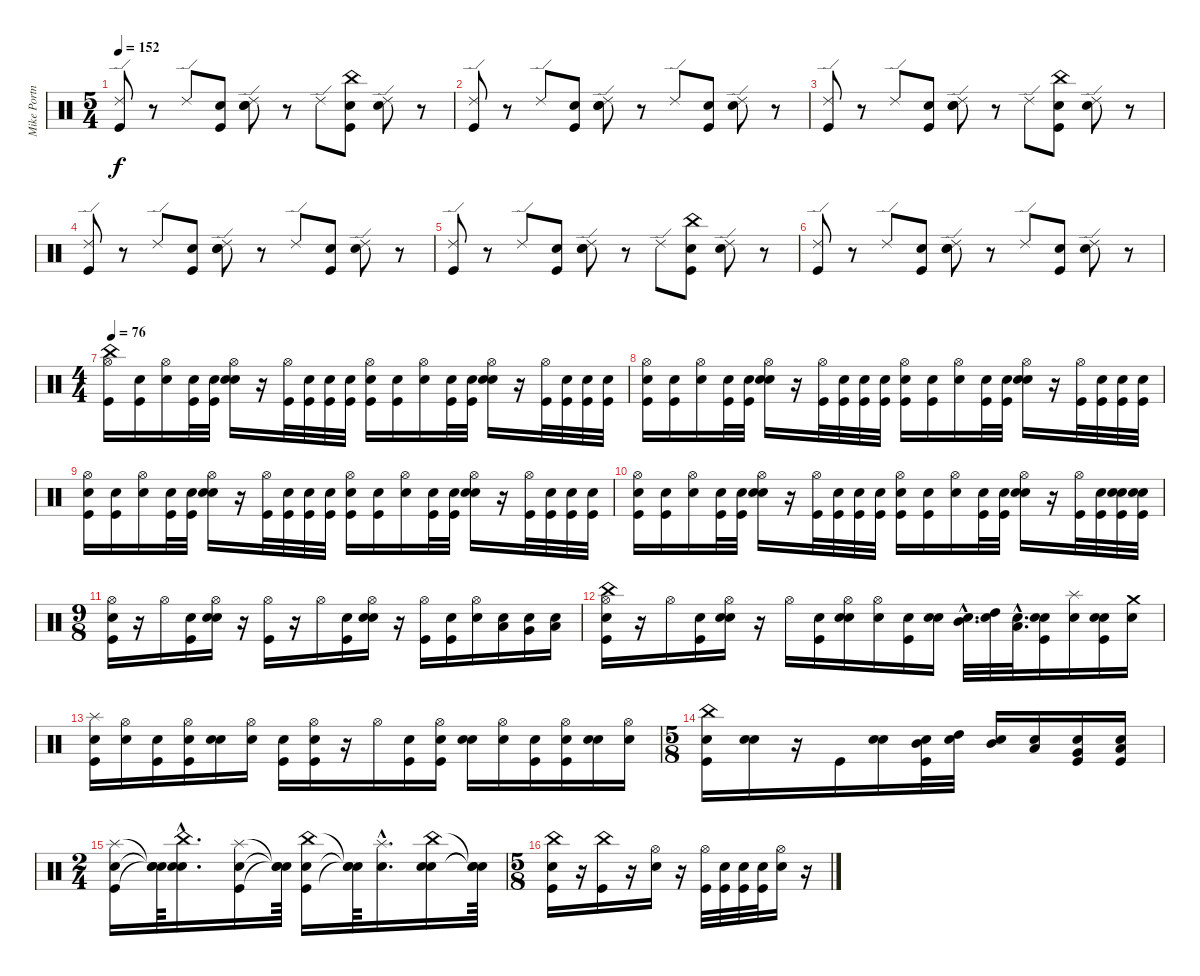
\track ("Mike Portnoy - Drum" "Mike Portn") {instrument percussion}
\staff {score}
\articulation defaults
\ts (5 4)
\tempo 152
\clef neutral
\ks c
("Kick (hit)" "Ride (edge) 2").8{dy f} r.8 "Ride (edge) 2".8 ("Snare (hit)" "Kick (hit)").8 ("Snare (hit)" "Snare (hit) 2" "Ride (edge) 2").8 r.8 "Ride (edge) 2".8 ("Snare (hit)" "Kick (hit)" "China (hit)").8 ("Snare (hit)" "Ride (edge) 2").8 r.8 |
("Kick (hit)" "Ride (edge) 2").8 r.8 "Ride (edge) 2".8 ("Snare (hit)" "Kick (hit)").8 ("Snare (hit)" "Snare (hit) 2" "Ride (edge) 2").8 r.8 "Ride (edge) 2".8 ("Snare (hit)" "Kick (hit)").8 ("Snare (hit)" "Ride (edge) 2").8 r.8 |
("Kick (hit)" "Ride (edge) 2").8 r.8 "Ride (edge) 2".8 ("Snare (hit)" "Kick (hit)").8 ("Snare (hit)" "Snare (hit) 2" "Ride (edge) 2").8 r.8 "Ride (edge) 2".8 ("Snare (hit)" "Kick (hit)" "China (hit)").8 ("Snare (hit)" "Ride (edge) 2").8 r.8 |
("Kick (hit)" "Ride (edge) 2").8 r.8 "Ride (edge) 2".8 ("Snare (hit)" "Kick (hit)").8 ("Snare (hit)" "Snare (hit) 2" "Ride (edge) 2").8 r.8 "Ride (edge) 2".8 ("Snare (hit)" "Kick (hit)").8 ("Snare (hit)" "Ride (edge) 2").8 r.8 |
("Kick (hit)" "Ride (edge) 2").8 r.8 "Ride (edge) 2".8 ("Snare (hit)" "Kick (hit)").8 ("Snare (hit)" "Snare (hit) 2" "Ride (edge) 2").8 r.8 "Ride (edge) 2".8 ("Snare (hit)" "Kick (hit)" "China (hit)").8 ("Snare (hit)" "Ride (edge) 2").8 r.8 |
("Kick (hit)" "Ride (edge) 2").8 r.8 "Ride (edge) 2".8 ("Snare (hit)" "Kick (hit)").8 ("Snare (hit)" "Snare (hit) 2" "Ride (edge) 2").8 r.8 "Ride (edge) 2".8 ("Snare (hit)" "Kick (hit)").8 ("Snare (hit)" "Ride (edge) 2").8 r.8 |
\ts (4 4)
\tempo 76
("Kick (hit)" "Hi-Hat (open)" "China (hit)").16 ("Snare (hit)" "Kick (hit)").16 ("Snare (hit)" "Hi-Hat (open)").16 ("Snare (hit)" "Kick (hit)").32 ("Snare (hit)" "Kick (hit)").32 ("Snare (hit)" "Snare (hit) 2" "Hi-Hat (open)").16 r.16 ("Kick (hit)" "Hi-Hat (open)").32 ("Snare (hit)" "Kick (hit)").32 ("Snare (hit)" "Kick (hit)").32 ("Snare (hit)" "Kick (hit)").32 ("Snare (hit)" "Kick (hit)" "Hi-Hat (open)").16 ("Snare (hit)" "Kick (hit)").16 ("Snare (hit)" "Hi-Hat (open)").16 ("Snare (hit)" "Kick (hit)").32 ("Snare (hit)" "Kick (hit)").32 ("Snare (hit)" "Snare (hit) 2" "Hi-Hat (open)").16 r.16 ("Kick (hit)" "Hi-Hat (open)").32 ("Snare (hit)" "Kick (hit)").32 ("Snare (hit)" "Kick (hit)").32 ("Snare (hit)" "Kick (hit)").32 |
("Snare (hit)" "Kick (hit)" "Hi-Hat (open)").16 ("Snare (hit)" "Kick (hit)").16 ("Snare (hit)" "Hi-Hat (open)").16 ("Snare (hit)" "Kick (hit)").32 ("Snare (hit)" "Kick (hit)").32 ("Snare (hit)" "Snare (hit) 2" "Hi-Hat (open)").16 r.16 ("Kick (hit)" "Hi-Hat (open)").32 ("Snare (hit)" "Kick (hit)").32 ("Snare (hit)" "Kick (hit)").32 ("Snare (hit)" "Kick (hit)").32 ("Snare (hit)" "Kick (hit)" "Hi-Hat (open)").16 ("Snare (hit)" "Kick (hit)").16 ("Snare (hit)" "Hi-Hat (open)").16 ("Snare (hit)" "Kick (hit)").32 ("Snare (hit)" "Kick (hit)").32 ("Snare (hit)" "Snare (hit) 2" "Hi-Hat (open)").16 r.16 ("Kick (hit)" "Hi-Hat (open)").32 ("Snare (hit)" "Kick (hit)").32 ("Snare (hit)" "Kick (hit)").32 ("Snare (hit)" "Kick (hit)").32 |
("Snare (hit)" "Kick (hit)" "Hi-Hat (open)").16 ("Snare (hit)" "Kick (hit)").16 ("Snare (hit)" "Hi-Hat (open)").16 ("Snare (hit)" "Kick (hit)").32 ("Snare (hit)" "Kick (hit)").32 ("Snare (hit)" "Snare (hit) 2" "Hi-Hat (open)").16 r.16 ("Kick (hit)" "Hi-Hat (open)").32 ("Snare (hit)" "Kick (hit)").32 ("Snare (hit)" "Kick (hit)").32 ("Snare (hit)" "Kick (hit)").32 ("Snare (hit)" "Kick (hit)" "Hi-Hat (open)").16 ("Snare (hit)" "Kick (hit)").16 ("Snare (hit)" "Hi-Hat (open)").16 ("Snare (hit)" "Kick (hit)").32 ("Snare (hit)" "Kick (hit)").32 ("Snare (hit)" "Snare (hit) 2" "Hi-Hat (open)").16 r.16 ("Kick (hit)" "Hi-Hat (open)").32 ("Snare (hit)" "Kick (hit)").32 ("Snare (hit)" "Kick (hit)").32 ("Snare (hit)" "Kick (hit)").32 |
("Snare (hit)" "Kick (hit)" "Hi-Hat (open)").16 ("Snare (hit)" "Kick (hit)").16 ("Snare (hit)" "Hi-Hat (open)").16 ("Snare (hit)" "Kick (hit)").32 ("Snare (hit)" "Kick (hit)").32 ("Snare (hit)" "Snare (hit) 2" "Hi-Hat (open)").16 r.16 ("Kick (hit)" "Hi-Hat (open)").32 ("Snare (hit)" "Kick (hit)").32 ("Snare (hit)" "Kick (hit)").32 ("Snare (hit)" "Kick (hit)").32 ("Snare (hit)" "Kick (hit)" "Hi-Hat (open)").16 ("Snare (hit)" "Kick (hit)").16 ("Snare (hit)" "Hi-Hat (open)").16 ("Snare (hit)" "Kick (hit)").32 ("Snare (hit)" "Kick (hit)").32 ("Snare (hit)" "Snare (hit) 2" "Hi-Hat (open)").16 r.16 ("Kick (hit)" "Hi-Hat (open)").32 ("Snare (hit)" "Kick (hit)").32 ("Snare (hit)" "Kick (hit)" "Snare (hit) 2").32 ("Snare (hit)" "Kick (hit)" "Snare (hit) 2").32 |
\ts (9 8)
("Snare (hit)" "Kick (hit)" "Hi-Hat (open)").16 r.16 "Hi-Hat (open)".16 ("Snare (hit)" "Kick (hit)").16 ("Snare (hit)" "Snare (hit) 2" "Hi-Hat (open)").16 r.16 ("Kick (hit)" "Hi-Hat (open)").16 r.16 "Hi-Hat (open)".16 ("Snare (hit)" "Kick (hit)").16 ("Snare (hit)" "Snare (hit) 2" "Hi-Hat (open)").16 r.16 ("Kick (hit)" "Hi-Hat (open)").16 ("Snare (hit)" "Kick (hit)").16 ("Snare (hit)" "Hi-Hat (open)").16 ("Snare (hit)" "Low Tom (hit)").16 ("Snare (hit)" "Very Low Tom (hit)").16 ("Snare (hit)" "Low Floor Tom (hit)").16 |
("Snare (hit)" "Kick (hit)" "Hi-Hat (open)" "China (hit)").16 r.16 "Hi-Hat (open)".16 ("Snare (hit)" "Kick (hit)").16 ("Snare (hit)" "Snare (hit) 2" "Hi-Hat (open)").16 r.16 "Hi-Hat (open)".16 ("Snare (hit)" "Kick (hit)").16 ("Snare (hit)" "Snare (hit) 2" "Hi-Hat (open)").16 ("Snare (hit)" "Hi-Hat (open)").16 ("Snare (hit)" "Kick (hit)").16 ("Snare (hit)" "Snare (hit) 2").16 ("Snare (hit)"{hac} "Mid Tom (hit)"{hac}).32{d} ("Snare (hit)" "High Tom (hit)").32 ("Snare (hit)"{hac} "Low Tom (hit)"{hac}).32{d} ("Snare (hit)" "Kick (hit)" "Snare (hit) 2").16 ("Snare (hit)" "Splash (hit)").16 ("Snare (hit)" "Kick (hit)" "Snare (hit) 2").16 ("Snare (hit)" "Crash medium (hit)").16 |
("Snare (hit)" "Kick (hit)" "Splash (hit)").16 ("Snare (hit)" "Hi-Hat (open)").16 ("Snare (hit)" "Kick (hit)").16 ("Snare (hit)" "Kick (hit)" "Hi-Hat (open)").16 ("Snare (hit)" "Snare (hit) 2").16 ("Snare (hit)" "Hi-Hat (open)").16 ("Snare (hit)" "Kick (hit)").16 ("Snare (hit)" "Kick (hit)" "Hi-Hat (open)").16 r.16 "Hi-Hat (open)".16 ("Snare (hit)" "Kick (hit)").16 ("Snare (hit)" "Kick (hit)" "Hi-Hat (open)").16 ("Snare (hit)" "Snare (hit) 2").16 ("Snare (hit)" "Hi-Hat (open)").16 ("Snare (hit)" "Kick (hit)").16 ("Snare (hit)" "Kick (hit)" "Hi-Hat (open)").16 ("Snare (hit)" "Snare (hit) 2").16 ("Snare (hit)" "Hi-Hat (open)").16 |
\ts (5 8)
("Snare (hit)" "Kick (hit)" "China (hit)").16 ("Snare (hit)" "Snare (hit) 2").16 r.16 "Kick (hit)".16 ("Snare (hit)" "Snare (hit) 2").16 ("Snare (hit)" "Kick (hit)" "Mid Tom (hit)").32 ("Snare (hit)" "High Tom (hit)").32 ("Snare (hit)" "Mid Tom (hit)").16 ("Snare (hit)" "Low Tom (hit)").16 ("Snare (hit)" "Kick (hit)" "Very Low Tom (hit)").16 ("Snare (hit)" "Kick (hit)" "Low Floor Tom (hit)").16 |
\ts (2 4)
("Snare (hit)" "Kick (hit)" "Splash (hit)").16 ("Snare (hit)"{t} "Snare (hit)"{t} "Snare (hit)"{t}).64 ("Snare (hit)"{hac} "Snare (hit) 2"{hac} "China (hit)"{hac}).16{d} ("Snare (hit)" "Kick (hit)" "Splash (hit)").16 ("Snare (hit)"{t} "Snare (hit)"{t} "Snare (hit)"{t}).64 ("Snare (hit)" "Kick (hit)" "China (hit)").16 ("Snare (hit)"{t} "Snare (hit)"{t} "Snare (hit)"{t}).64 ("Snare (hit)"{hac} "Splash (hit)"{hac}).16{d} ("Snare (hit)" "Snare (hit) 2" "China (hit)").16 ("Snare (hit)"{t} "Snare (hit)"{t} "Snare (hit)"{t}).64 |
\ts (5 8)
("Snare (hit)" "Kick (hit)" "China (hit)").16 r.16 ("Kick (hit)" "China (hit)").16 r.16 ("Snare (hit) 2" "Hi-Hat (open)").16 r.16 ("Kick (hit)" "Hi-Hat (open)").32 ("Snare (hit)" "Kick (hit)").32 ("Snare (hit)" "Kick (hit)").32 ("Snare (hit)" "Kick (hit)").32 ("Snare (hit)" "Hi-Hat (open)").16 r.16
